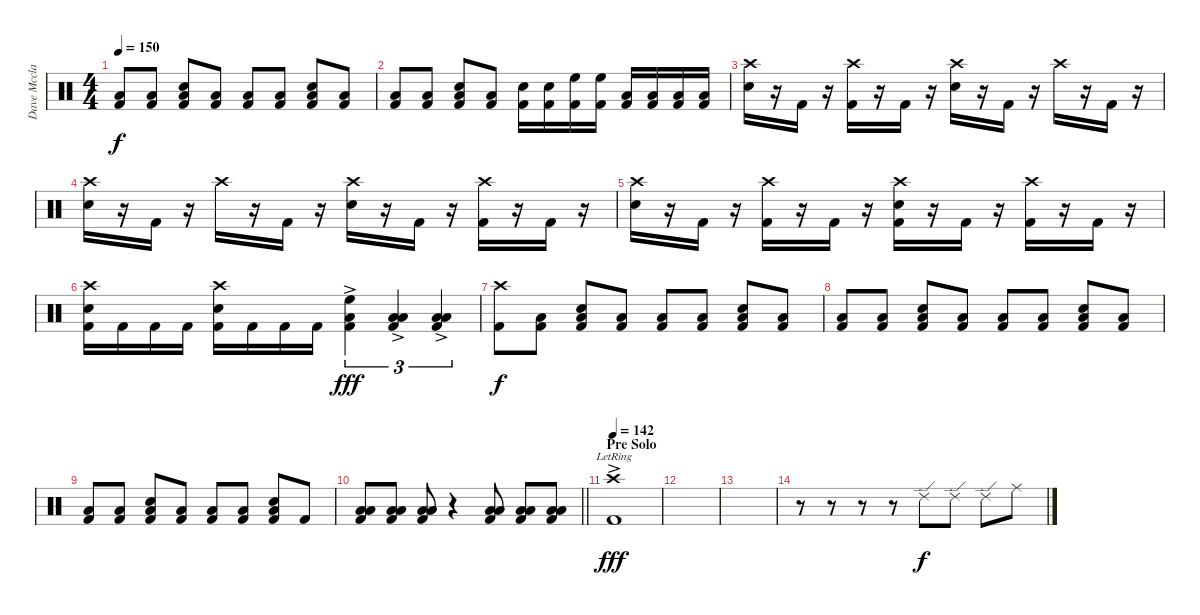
\track ("Dave Mcclain" "Dave Mccla") {instrument percussion}
\staff {score}
\articulation defaults
\ts (4 4)
\tempo 150
\clef neutral
\ks c
("Low Floor Tom (hit)" "Kick (hit) 2").8{dy f} ("Low Floor Tom (hit)" "Kick (hit) 2").8 ("Low Floor Tom (hit)" "Electric Snare (hit)" "Kick (hit) 2").8 ("Low Floor Tom (hit)" "Kick (hit) 2").8 ("Low Floor Tom (hit)" "Kick (hit) 2").8 ("Low Floor Tom (hit)" "Kick (hit) 2").8 ("Low Floor Tom (hit)" "Electric Snare (hit)" "Kick (hit) 2").8 ("Low Floor Tom (hit)" "Kick (hit) 2").8 |
("Low Floor Tom (hit)" "Kick (hit) 2").8 ("Low Floor Tom (hit)" "Kick (hit) 2").8 ("Low Floor Tom (hit)" "Electric Snare (hit)" "Kick (hit) 2").8 ("Low Floor Tom (hit)" "Kick (hit) 2").8 ("Electric Snare (hit)" "Kick (hit) 2").16 ("Electric Snare (hit)" "Kick (hit) 2").16 ("High Floor Tom (hit)" "Kick (hit) 2").16 ("High Floor Tom (hit)" "Kick (hit) 2").16 ("Low Tom (hit)" "Kick (hit) 2").16 ("Low Tom (hit)" "Kick (hit) 2").16 ("Low Floor Tom (hit)" "Kick (hit) 2").16 ("Low Floor Tom (hit)" "Kick (hit) 2").16 |
("Crash high (hit)" "Electric Snare (hit)").16 r.16 "Kick (hit) 2".16 r.16 ("Crash high (hit)" "Kick (hit) 2").16 r.16 "Kick (hit) 2".16 r.16 ("Crash high (hit)" "Electric Snare (hit)").16 r.16 "Kick (hit) 2".16 r.16 "Crash high (hit)".16 r.16 "Kick (hit) 2".16 r.16 |
("Crash high (hit)" "Electric Snare (hit)").16 r.16 "Kick (hit) 2".16 r.16 "Crash high (hit)".16 r.16 "Kick (hit) 2".16 r.16 ("Crash high (hit)" "Electric Snare (hit)").16 r.16 "Kick (hit) 2".16 r.16 ("Crash high (hit)" "Kick (hit) 2").16 r.16 "Kick (hit) 2".16 r.16 |
("Crash high (hit)" "Electric Snare (hit)").16 r.16 "Kick (hit) 2".16 r.16 ("Crash high (hit)" "Kick (hit) 2").16 r.16 "Kick (hit) 2".16 r.16 ("Crash high (hit)" "Electric Snare (hit)" "Kick (hit) 2").16 r.16 "Kick (hit) 2".16 r.16 ("Crash high (hit)" "Kick (hit) 2").16 r.16 "Kick (hit) 2".16 r.16 |
("Crash high (hit)" "Electric Snare (hit)" "Kick (hit) 2").16 "Kick (hit) 2".16 "Kick (hit) 2".16 "Kick (hit) 2".16 ("Crash high (hit)" "Electric Snare (hit)" "Kick (hit) 2").16 "Kick (hit) 2".16 "Kick (hit) 2".16 "Kick (hit) 2".16 ("High Floor Tom (hit)"{ac} "Low Floor Tom (hit)"{ac} "Kick (hit) 2"{ac}).4{tu (3 2) dy fff} ("Low Tom (hit)"{ac} "Low Floor Tom (hit)"{ac} "Kick (hit) 2"{ac}).4{tu (3 2)} ("Low Floor Tom (hit)"{ac} "Low Floor Tom (hit)"{ac} "Kick (hit) 2"{ac}).4{tu (3 2)} |
("Crash high (hit)" "Kick (hit) 2").8{dy f} ("Low Floor Tom (hit)" "Kick (hit) 2").8 ("Low Floor Tom (hit)" "Electric Snare (hit)" "Kick (hit) 2").8 ("Low Floor Tom (hit)" "Kick (hit) 2").8 ("Low Floor Tom (hit)" "Kick (hit) 2").8 ("Low Floor Tom (hit)" "Kick (hit) 2").8 ("Low Floor Tom (hit)" "Electric Snare (hit)" "Kick (hit) 2").8 ("Low Floor Tom (hit)" "Kick (hit) 2").8 |
("Low Floor Tom (hit)" "Kick (hit) 2").8 ("Low Floor Tom (hit)" "Kick (hit) 2").8 ("Low Floor Tom (hit)" "Electric Snare (hit)" "Kick (hit) 2").8 ("Low Floor Tom (hit)" "Kick (hit) 2").8 ("Low Floor Tom (hit)" "Kick (hit) 2").8 ("Low Floor Tom (hit)" "Kick (hit) 2").8 ("Low Floor Tom (hit)" "Electric Snare (hit)" "Kick (hit) 2").8 ("Low Floor Tom (hit)" "Kick (hit) 2").8 |
("Low Floor Tom (hit)" "Kick (hit) 2").8 ("Low Floor Tom (hit)" "Kick (hit) 2").8 ("Low Floor Tom (hit)" "Electric Snare (hit)" "Kick (hit) 2").8 ("Low Floor Tom (hit)" "Kick (hit) 2").8 ("Low Floor Tom (hit)" "Kick (hit) 2").8 ("Low Floor Tom (hit)" "Kick (hit) 2").8 ("Low Floor Tom (hit)" "Electric Snare (hit)" "Kick (hit) 2").8 "Kick (hit) 2".8 |
\barLineRight lightlight
("Low Tom (hit)" "Low Floor Tom (hit)" "Kick (hit) 2").8 ("Low Tom (hit)" "Low Floor Tom (hit)" "Kick (hit) 2").8 ("Low Tom (hit)" "Low Floor Tom (hit)" "Kick (hit) 2").8 r.4 ("Low Tom (hit)" "Low Floor Tom (hit)" "Kick (hit) 2").8 ("Low Tom (hit)" "Low Floor Tom (hit)" "Kick (hit) 2").8 ("Low Tom (hit)" "Low Floor Tom (hit)" "Kick (hit) 2").8 |
\section ("" "Pre Solo")
\tempo 142
("Crash high (hit)"{ac lr} "Kick (hit) 2"{ac}).1{dy fff} |
|
|
r.8 r.8 r.8 r.8 "Ride (edge) 2".8{dy f} "Ride (edge) 2".8 "Ride (edge) 2".8 "Ride (middle)".8
